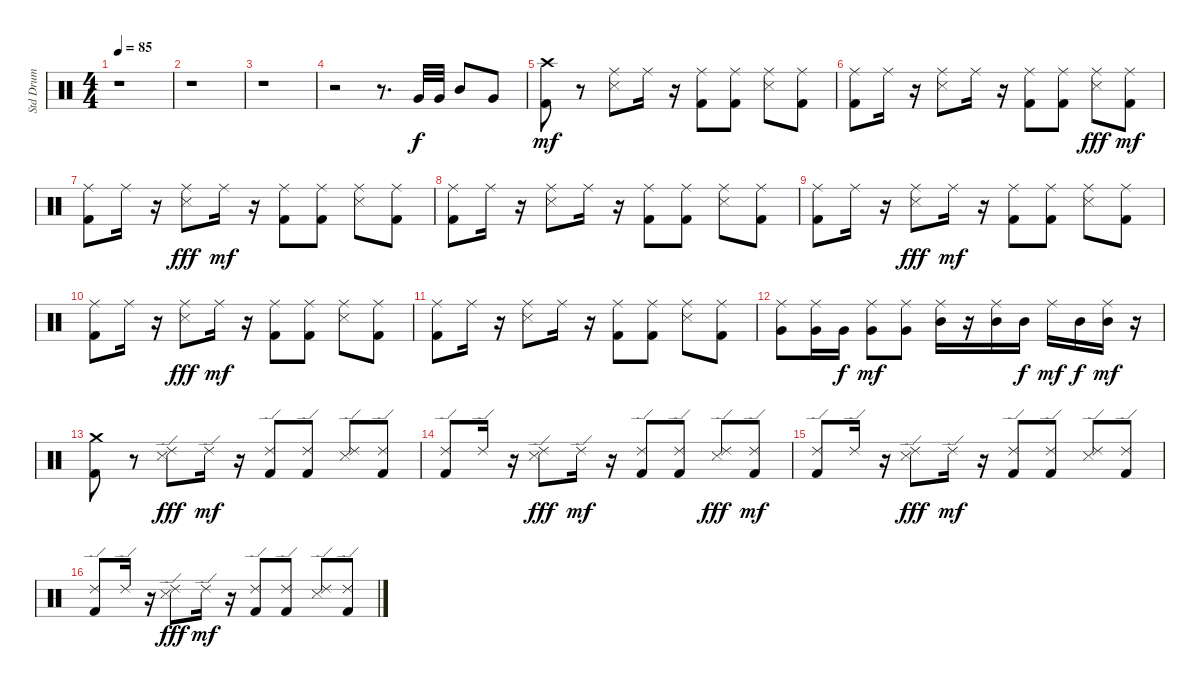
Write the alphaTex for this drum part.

\track ("Std Drum" "Std Drum") {instrument percussion}
\staff {score}
\articulation defaults
\ts (4 4)
\tempo 85
\clef neutral
\ks c
r.1{dy f} |
r.1 |
r.1 |
r.2 r.8{d} "Very Low Tom (hit)".32 "Very Low Tom (hit)".32 "Mid Tom (hit)".8 "Very Low Tom (hit)".8 |
("Kick (hit) 2" "Crash high (hit)").8{dy mf} r.8 ("Snare (side stick) 3" "Ride (middle)").8 "Ride (middle)".16 r.16 ("Ride (middle)" "Kick (hit) 2").8 ("Kick (hit) 2" "Ride (middle)").8 ("Snare (side stick) 3" "Ride (middle)").8 ("Ride (middle)" "Kick (hit) 2").8 |
("Kick (hit) 2" "Ride (middle)").8 "Ride (middle)".16 r.16 ("Snare (side stick) 3" "Ride (middle)").8 "Ride (middle)".16 r.16 ("Ride (middle)" "Kick (hit) 2").8 ("Ride (middle)" "Kick (hit) 2").8 ("Ride (middle)" "Snare (side stick) 3").8{dy fff} ("Ride (middle)" "Kick (hit) 2").8{dy mf} |
("Kick (hit) 2" "Ride (middle)").8 "Ride (middle)".16 r.16 ("Ride (middle)" "Snare (side stick) 3").8{dy fff} "Ride (middle)".16{dy mf} r.16 ("Ride (middle)" "Kick (hit) 2").8 ("Kick (hit) 2" "Ride (middle)").8 ("Snare (side stick) 3" "Ride (middle)").8 ("Ride (middle)" "Kick (hit) 2").8 |
("Ride (middle)" "Kick (hit) 2").8 "Ride (middle)".16 r.16 ("Snare (side stick) 3" "Ride (middle)").8 "Ride (middle)".16 r.16 ("Ride (middle)" "Kick (hit) 2").8 ("Ride (middle)" "Kick (hit) 2").8 ("Snare (side stick) 3" "Ride (middle)").8 ("Kick (hit) 2" "Ride (middle)").8 |
("Ride (middle)" "Kick (hit) 2").8 "Ride (middle)".16 r.16 ("Ride (middle)" "Snare (side stick) 3").8{dy fff} "Ride (middle)".16{dy mf} r.16 ("Ride (middle)" "Kick (hit) 2").8 ("Ride (middle)" "Kick (hit) 2").8 ("Snare (side stick) 3" "Ride (middle)").8 ("Ride (middle)" "Kick (hit) 2").8 |
("Kick (hit) 2" "Ride (middle)").8 "Ride (middle)".16 r.16 ("Ride (middle)" "Snare (side stick) 3").8{dy fff} "Ride (middle)".16{dy mf} r.16 ("Ride (middle)" "Kick (hit) 2").8 ("Kick (hit) 2" "Ride (middle)").8 ("Snare (side stick) 3" "Ride (middle)").8 ("Ride (middle)" "Kick (hit) 2").8 |
("Kick (hit) 2" "Ride (middle)").8 "Ride (middle)".16 r.16 ("Snare (side stick) 3" "Ride (middle)").8 "Ride (middle)".16 r.16 ("Kick (hit) 2" "Ride (middle)").8 ("Ride (middle)" "Kick (hit) 2").8 ("Snare (side stick) 3" "Ride (middle)").8 ("Kick (hit) 2" "Ride (middle)").8 |
("Ride (middle)" "Very Low Tom (hit)").8 ("Very Low Tom (hit)" "Ride (middle)").16 "Very Low Tom (hit)".16{dy f} ("Very Low Tom (hit)" "Ride (middle)").8{dy mf} ("Very Low Tom (hit)" "Ride (middle)").8 ("Mid Tom (hit)" "Ride (middle)").16 r.16 ("Ride (middle)" "Mid Tom (hit)").16 "Mid Tom (hit)".16{dy f} "Ride (middle)".16{dy mf} "Mid Tom (hit)".16{dy f} ("Mid Tom (hit)" "Ride (middle)").16{dy mf} r.16 |
("Kick (hit) 2" "Crash medium (hit)").8 r.8 ("Ride (edge) 2" "Snare (side stick) 3").8{dy fff} "Ride (edge) 2".16{dy mf} r.16 ("Kick (hit) 2" "Ride (edge) 2").8 ("Ride (edge) 2" "Kick (hit) 2").8 ("Snare (side stick) 3" "Ride (edge) 2").8 ("Kick (hit) 2" "Ride (edge) 2").8 |
("Kick (hit) 2" "Ride (edge) 2").8 "Ride (edge) 2".16 r.16 ("Ride (edge) 2" "Snare (side stick) 3").8{dy fff} "Ride (edge) 2".16{dy mf} r.16 ("Kick (hit) 2" "Ride (edge) 2").8 ("Ride (edge) 2" "Kick (hit) 2").8 ("Ride (edge) 2" "Snare (side stick) 3").8{dy fff} ("Kick (hit) 2" "Ride (edge) 2").8{dy mf} |
("Ride (edge) 2" "Kick (hit) 2").8 "Ride (edge) 2".16 r.16 ("Ride (edge) 2" "Snare (side stick) 3").8{dy fff} "Ride (edge) 2".16{dy mf} r.16 ("Ride (edge) 2" "Kick (hit) 2").8 ("Ride (edge) 2" "Kick (hit) 2").8 ("Snare (side stick) 3" "Ride (edge) 2").8 ("Ride (edge) 2" "Kick (hit) 2").8 |
("Kick (hit) 2" "Ride (edge) 2").8 "Ride (edge) 2".16 r.16 ("Ride (edge) 2" "Snare (side stick) 3").8{dy fff} "Ride (edge) 2".16{dy mf} r.16 ("Kick (hit) 2" "Ride (edge) 2").8 ("Ride (edge) 2" "Kick (hit) 2").8 ("Snare (side stick) 3" "Ride (edge) 2").8 ("Kick (hit) 2" "Ride (edge) 2").8
